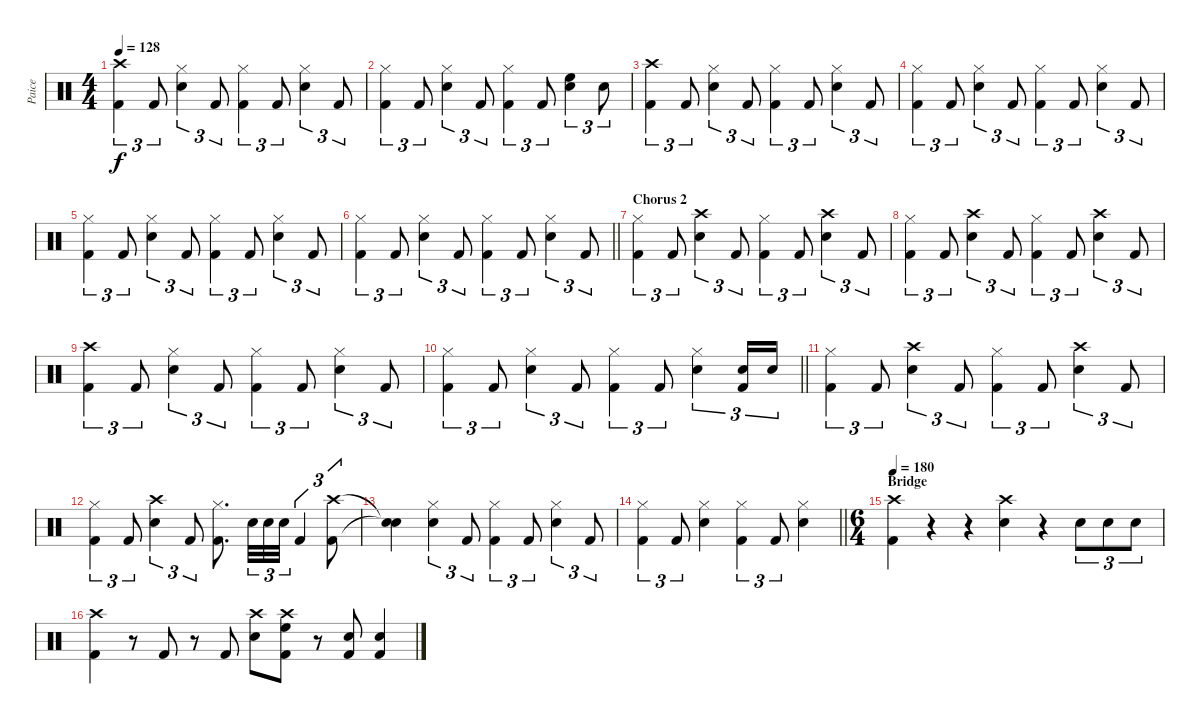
\track ("Paice" "Paice") {instrument percussion}
\staff {score}
\articulation defaults
\ts (4 4)
\tempo 128
\clef neutral
\ks c
("Crash high (hit)" "Kick (hit) 2").4{tu (3 2) dy f} "Kick (hit) 2".8{tu (3 2)} ("Hi-Hat (closed)" "Snare (hit) 2").4{tu (3 2)} "Kick (hit) 2".8{tu (3 2)} ("Hi-Hat (closed)" "Kick (hit) 2").4{tu (3 2)} "Kick (hit) 2".8{tu (3 2)} ("Hi-Hat (closed)" "Snare (hit) 2").4{tu (3 2)} "Kick (hit) 2".8{tu (3 2)} |
("Hi-Hat (closed)" "Kick (hit) 2").4{tu (3 2)} "Kick (hit) 2".8{tu (3 2)} ("Hi-Hat (closed)" "Snare (hit) 2").4{tu (3 2)} "Kick (hit) 2".8{tu (3 2)} ("Hi-Hat (closed)" "Kick (hit) 2").4{tu (3 2)} "Kick (hit) 2".8{tu (3 2)} ("High Floor Tom (hit)" "Snare (hit) 2").4{tu (3 2)} "Snare (hit) 2".8{tu (3 2)} |
("Crash high (hit)" "Kick (hit) 2").4{tu (3 2)} "Kick (hit) 2".8{tu (3 2)} ("Hi-Hat (closed)" "Snare (hit) 2").4{tu (3 2)} "Kick (hit) 2".8{tu (3 2)} ("Hi-Hat (closed)" "Kick (hit) 2").4{tu (3 2)} "Kick (hit) 2".8{tu (3 2)} ("Hi-Hat (closed)" "Snare (hit) 2").4{tu (3 2)} "Kick (hit) 2".8{tu (3 2)} |
("Hi-Hat (closed)" "Kick (hit) 2").4{tu (3 2)} "Kick (hit) 2".8{tu (3 2)} ("Hi-Hat (closed)" "Snare (hit) 2").4{tu (3 2)} "Kick (hit) 2".8{tu (3 2)} ("Hi-Hat (closed)" "Kick (hit) 2").4{tu (3 2)} "Kick (hit) 2".8{tu (3 2)} ("Hi-Hat (closed)" "Snare (hit) 2").4{tu (3 2)} "Kick (hit) 2".8{tu (3 2)} |
("Hi-Hat (closed)" "Kick (hit) 2").4{tu (3 2)} "Kick (hit) 2".8{tu (3 2)} ("Hi-Hat (closed)" "Snare (hit) 2").4{tu (3 2)} "Kick (hit) 2".8{tu (3 2)} ("Hi-Hat (closed)" "Kick (hit) 2").4{tu (3 2)} "Kick (hit) 2".8{tu (3 2)} ("Hi-Hat (closed)" "Snare (hit) 2").4{tu (3 2)} "Kick (hit) 2".8{tu (3 2)} |
\barLineRight lightlight
("Hi-Hat (closed)" "Kick (hit) 2").4{tu (3 2)} "Kick (hit) 2".8{tu (3 2)} ("Hi-Hat (closed)" "Snare (hit) 2").4{tu (3 2)} "Kick (hit) 2".8{tu (3 2)} ("Hi-Hat (closed)" "Kick (hit) 2").4{tu (3 2)} "Kick (hit) 2".8{tu (3 2)} ("Hi-Hat (closed)" "Snare (hit) 2").4{tu (3 2)} "Kick (hit) 2".8{tu (3 2)} |
\section ("" "Chorus 2")
("Hi-Hat (closed)" "Kick (hit) 2").4{tu (3 2)} "Kick (hit) 2".8{tu (3 2)} ("Crash high (hit)" "Snare (hit) 2").4{tu (3 2)} "Kick (hit) 2".8{tu (3 2)} ("Hi-Hat (closed)" "Kick (hit) 2").4{tu (3 2)} "Kick (hit) 2".8{tu (3 2)} ("Crash high (hit)" "Snare (hit) 2").4{tu (3 2)} "Kick (hit) 2".8{tu (3 2)} |
("Hi-Hat (closed)" "Kick (hit) 2").4{tu (3 2)} "Kick (hit) 2".8{tu (3 2)} ("Crash high (hit)" "Snare (hit) 2").4{tu (3 2)} "Kick (hit) 2".8{tu (3 2)} ("Hi-Hat (closed)" "Kick (hit) 2").4{tu (3 2)} "Kick (hit) 2".8{tu (3 2)} ("Crash high (hit)" "Snare (hit) 2").4{tu (3 2)} "Kick (hit) 2".8{tu (3 2)} |
("Crash high (hit)" "Kick (hit) 2").4{tu (3 2)} "Kick (hit) 2".8{tu (3 2)} ("Hi-Hat (closed)" "Snare (hit) 2").4{tu (3 2)} "Kick (hit) 2".8{tu (3 2)} ("Hi-Hat (closed)" "Kick (hit) 2").4{tu (3 2)} "Kick (hit) 2".8{tu (3 2)} ("Hi-Hat (closed)" "Snare (hit) 2").4{tu (3 2)} "Kick (hit) 2".8{tu (3 2)} |
\barLineRight lightlight
("Hi-Hat (closed)" "Kick (hit) 2").4{tu (3 2)} "Kick (hit) 2".8{tu (3 2)} ("Hi-Hat (closed)" "Snare (hit) 2").4{tu (3 2)} "Kick (hit) 2".8{tu (3 2)} ("Hi-Hat (closed)" "Kick (hit) 2").4{tu (3 2)} "Kick (hit) 2".8{tu (3 2)} ("Hi-Hat (closed)" "Snare (hit) 2").4{tu (3 2)} ("Snare (hit) 2" "Kick (hit) 2").16{tu (3 2)} "Snare (hit) 2".16{tu (3 2)} |
("Hi-Hat (closed)" "Kick (hit) 2").4{tu (3 2)} "Kick (hit) 2".8{tu (3 2)} ("Crash high (hit)" "Snare (hit) 2").4{tu (3 2)} "Kick (hit) 2".8{tu (3 2)} ("Hi-Hat (closed)" "Kick (hit) 2").4{tu (3 2)} "Kick (hit) 2".8{tu (3 2)} ("Crash high (hit)" "Snare (hit) 2").4{tu (3 2)} "Kick (hit) 2".8{tu (3 2)} |
("Hi-Hat (closed)" "Kick (hit) 2").4{tu (3 2)} "Kick (hit) 2".8{tu (3 2)} ("Crash high (hit)" "Snare (hit) 2").4{tu (3 2)} "Kick (hit) 2".8{tu (3 2)} ("Hi-Hat (closed)" "Kick (hit) 2").8{d} "Snare (hit) 2".32{tu (3 2)} "Snare (hit) 2".32{tu (3 2)} "Snare (hit) 2".32{tu (3 2)} "Kick (hit) 2".4{tu (3 2)} ("Crash high (hit)" "Kick (hit) 2").8{tu (3 2)} |
("Snare (hit)"{t} "Snare (hit)"{t}).4 ("Hi-Hat (closed)" "Snare (hit) 2").4{tu (3 2)} "Kick (hit) 2".8{tu (3 2)} ("Hi-Hat (closed)" "Kick (hit) 2").4{tu (3 2)} "Kick (hit) 2".8{tu (3 2)} ("Hi-Hat (closed)" "Snare (hit) 2").4{tu (3 2)} "Kick (hit) 2".8{tu (3 2)} |
\barLineRight lightlight
("Hi-Hat (closed)" "Kick (hit) 2").4{tu (3 2)} "Kick (hit) 2".8{tu (3 2)} ("Hi-Hat (closed)" "Snare (hit) 2").4 ("Hi-Hat (closed)" "Kick (hit) 2").4{tu (3 2)} "Kick (hit) 2".8{tu (3 2)} ("Hi-Hat (closed)" "Snare (hit) 2").4 |
\ts (6 4)
\section ("" "Bridge")
\tempo 180
("Crash high (hit)" "Kick (hit) 2").4 r.4 r.4 ("Crash high (hit)" "Snare (hit) 2").4 r.4 "Snare (hit) 2".8{tu (3 2)} "Snare (hit) 2".8{tu (3 2)} "Snare (hit) 2".8{tu (3 2)} |
("Crash high (hit)" "Kick (hit) 2").4 r.8 "Kick (hit) 2".8 r.8 "Kick (hit) 2".8 ("Crash high (hit)" "Snare (hit) 2").8 ("Crash high (hit)" "High Floor Tom (hit)" "Kick (hit) 2").8 r.8 ("Snare (hit) 2" "Kick (hit) 2").8 ("Snare (hit) 2" "Kick (hit) 2").4
